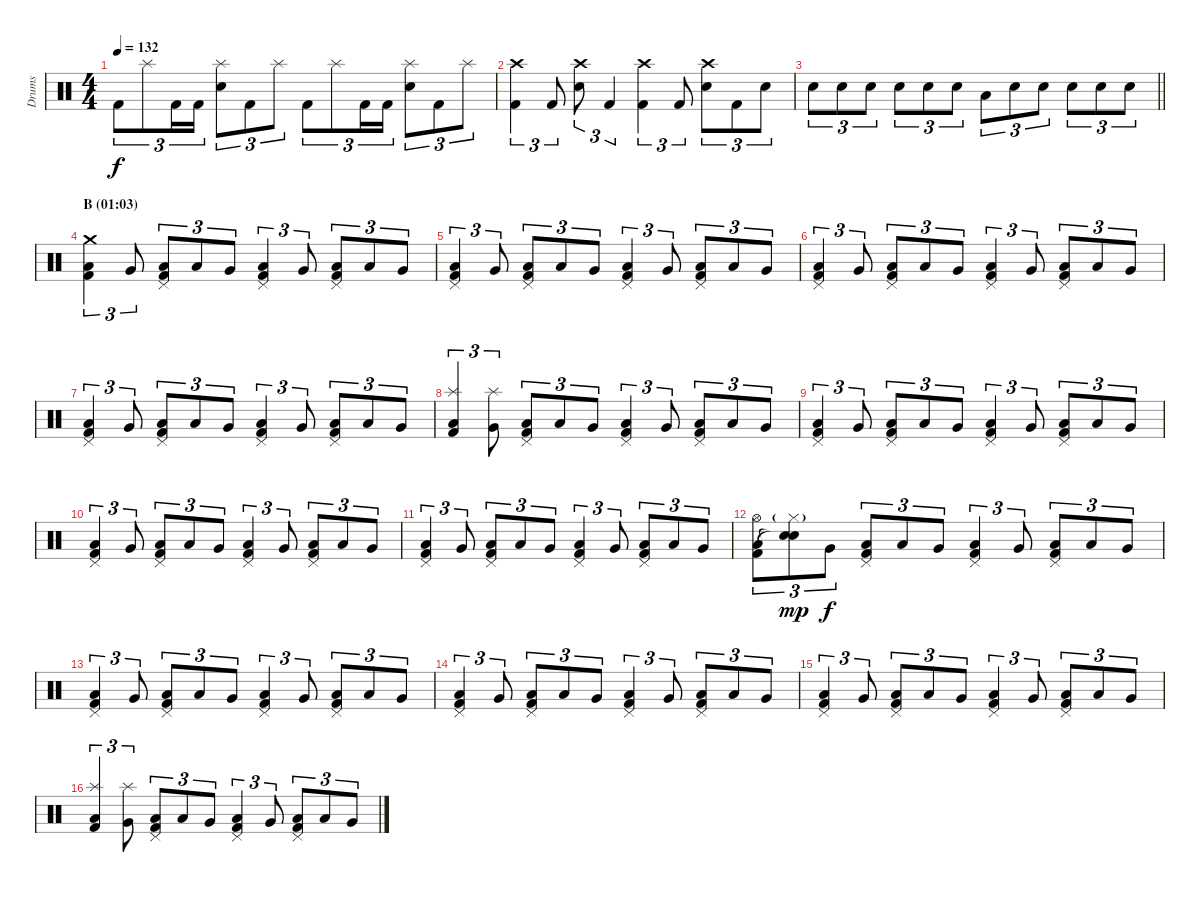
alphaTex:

\track ("Drums" "Drums") {instrument percussion}
\staff {score}
\articulation defaults
\ts (4 4)
\tempo 132
\clef neutral
\ks c "Kick (hit) 2".8{tu (3 2) dy f} "Splash (hit)".8{tu (3 2)} "Kick (hit) 2".16{tu (3 2)} "Kick (hit) 2".16{tu (3 2)}
("Splash (hit)" "Electric Snare (hit)").8{tu (3 2)} "Kick (hit) 2".8{tu (3 2)} "Splash (hit)".8{tu (3 2)} "Kick (hit) 2".8{tu (3 2)} "Splash (hit)".8{tu (3 2)} "Kick (hit) 2".16{tu (3 2)} "Kick (hit) 2".16{tu (3 2)} ("Splash (hit)" "Electric Snare (hit)").8{tu (3 2)} "Kick (hit) 2".8{tu (3 2)} "Splash (hit)".8{tu (3 2)} |
("Crash high (hit)" "Kick (hit) 2").4{tu (3 2)} "Kick (hit) 2".8{tu (3 2)} ("Crash high (hit)" "Electric Snare (hit)").8{tu (3 2)} "Kick (hit) 2".4{tu (3 2)} ("Crash high (hit)" "Kick (hit) 2").4{tu (3 2)} "Kick (hit) 2".8{tu (3 2)} ("Crash high (hit)" "Electric Snare (hit)").8{tu (3 2)} "Kick (hit) 2".8{tu (3 2)} "Electric Snare (hit)".8{tu (3 2)} |
\barLineRight lightlight "Electric Snare (hit)".8{tu (3 2)} "Electric Snare (hit)".8{tu (3 2)} "Electric Snare (hit)".8{tu (3 2)} "Electric Snare (hit)".8{tu (3 2)} "Electric Snare (hit)".8{tu (3 2)} "Electric Snare (hit)".8{tu (3 2)} "Low Tom (hit)".8{tu (3 2)} "Electric Snare (hit)".8{tu (3 2)} "Electric Snare (hit)".8{tu (3 2)} "Electric Snare (hit)".8{tu (3 2)} "Electric Snare (hit)".8{tu (3 2)} "Electric Snare (hit)".8{tu (3 2)}
|
\section ("" "B (01:03)")
("Crash medium (hit)" "Low Tom (hit)" "Kick (hit) 2").4{tu (3 2)} "Very Low Tom (hit)".8{tu (3 2)} ("Pedal Hi-Hat (hit)" "Low Tom (hit)" "Kick (hit) 2").8{tu (3 2)} "Low Tom (hit)".8{tu (3 2)} "Very Low Tom (hit)".8{tu (3 2)} ("Pedal Hi-Hat (hit)" "Low Tom (hit)" "Kick (hit) 2").4{tu (3 2)} "Very Low Tom (hit)".8{tu (3 2)} ("Pedal Hi-Hat (hit)" "Low Tom (hit)" "Kick (hit) 2").8{tu (3 2)} "Low Tom (hit)".8{tu (3 2)} "Very Low Tom (hit)".8{tu (3 2)} |
("Pedal Hi-Hat (hit)" "Low Tom (hit)" "Kick (hit) 2").4{tu (3 2)} "Very Low Tom (hit)".8{tu (3 2)} ("Pedal Hi-Hat (hit)" "Low Tom (hit)" "Kick (hit) 2").8{tu (3 2)} "Low Tom (hit)".8{tu (3 2)} "Very Low Tom (hit)".8{tu (3 2)} ("Pedal Hi-Hat (hit)" "Low Tom (hit)" "Kick (hit) 2").4{tu (3 2)} "Very Low Tom (hit)".8{tu (3 2)} ("Pedal Hi-Hat (hit)" "Low Tom (hit)" "Kick (hit) 2").8{tu (3 2)} "Low Tom (hit)".8{tu (3 2)} "Very Low Tom (hit)".8{tu (3 2)} |
("Pedal Hi-Hat (hit)" "Low Tom (hit)" "Kick (hit) 2").4{tu (3 2)} "Very Low Tom (hit)".8{tu (3 2)} ("Pedal Hi-Hat (hit)" "Low Tom (hit)" "Kick (hit) 2").8{tu (3 2)} "Low Tom (hit)".8{tu (3 2)} "Very Low Tom (hit)".8{tu (3 2)} ("Pedal Hi-Hat (hit)" "Low Tom (hit)" "Kick (hit) 2").4{tu (3 2)} "Very Low Tom (hit)".8{tu (3 2)} ("Pedal Hi-Hat (hit)" "Low Tom (hit)" "Kick (hit) 2").8{tu (3 2)} "Low Tom (hit)".8{tu (3 2)} "Very Low Tom (hit)".8{tu (3 2)} |
("Pedal Hi-Hat (hit)" "Low Tom (hit)" "Kick (hit) 2").4{tu (3 2)} "Very Low Tom (hit)".8{tu (3 2)} ("Pedal Hi-Hat (hit)" "Low Tom (hit)" "Kick (hit) 2").8{tu (3 2)} "Low Tom (hit)".8{tu (3 2)} "Very Low Tom (hit)".8{tu (3 2)} ("Pedal Hi-Hat (hit)" "Low Tom (hit)" "Kick (hit) 2").4{tu (3 2)} "Very Low Tom (hit)".8{tu (3 2)} ("Pedal Hi-Hat (hit)" "Low Tom (hit)" "Kick (hit) 2").8{tu (3 2)} "Low Tom (hit)".8{tu (3 2)} "Very Low Tom (hit)".8{tu (3 2)} |
("Splash (hit)" "Low Tom (hit)" "Kick (hit) 2").4{tu (3 2)} ("Splash (hit)" "Very Low Tom (hit)").8{tu (3 2)} ("Pedal Hi-Hat (hit)" "Low Tom (hit)" "Kick (hit) 2").8{tu (3 2)} "Low Tom (hit)".8{tu (3 2)} "Very Low Tom (hit)".8{tu (3 2)} ("Pedal Hi-Hat (hit)" "Low Tom (hit)" "Kick (hit) 2").4{tu (3 2)} "Very Low Tom (hit)".8{tu (3 2)} ("Pedal Hi-Hat (hit)" "Low Tom (hit)" "Kick (hit) 2").8{tu (3 2)} "Low Tom (hit)".8{tu (3 2)} "Very Low Tom (hit)".8{tu (3 2)} |
("Pedal Hi-Hat (hit)" "Low Tom (hit)" "Kick (hit) 2").4{tu (3 2)} "Very Low Tom (hit)".8{tu (3 2)} ("Pedal Hi-Hat (hit)" "Low Tom (hit)" "Kick (hit) 2").8{tu (3 2)} "Low Tom (hit)".8{tu (3 2)} "Very Low Tom (hit)".8{tu (3 2)} ("Pedal Hi-Hat (hit)" "Low Tom (hit)" "Kick (hit) 2").4{tu (3 2)} "Very Low Tom (hit)".8{tu (3 2)} ("Pedal Hi-Hat (hit)" "Low Tom (hit)" "Kick (hit) 2").8{tu (3 2)} "Low Tom (hit)".8{tu (3 2)} "Very Low Tom (hit)".8{tu (3 2)} |
("Pedal Hi-Hat (hit)" "Low Tom (hit)" "Kick (hit) 2").4{tu (3 2)} "Very Low Tom (hit)".8{tu (3 2)} ("Pedal Hi-Hat (hit)" "Low Tom (hit)" "Kick (hit) 2").8{tu (3 2)} "Low Tom (hit)".8{tu (3 2)} "Very Low Tom (hit)".8{tu (3 2)} ("Pedal Hi-Hat (hit)" "Low Tom (hit)" "Kick (hit) 2").4{tu (3 2)} "Very Low Tom (hit)".8{tu (3 2)} ("Pedal Hi-Hat (hit)" "Low Tom (hit)" "Kick (hit) 2").8{tu (3 2)} "Low Tom (hit)".8{tu (3 2)} "Very Low Tom (hit)".8{tu (3 2)} |
("Pedal Hi-Hat (hit)" "Low Tom (hit)" "Kick (hit) 2").4{tu (3 2)} "Very Low Tom (hit)".8{tu (3 2)} ("Pedal Hi-Hat (hit)" "Low Tom (hit)" "Kick (hit) 2").8{tu (3 2)} "Low Tom (hit)".8{tu (3 2)} "Very Low Tom (hit)".8{tu (3 2)} ("Pedal Hi-Hat (hit)" "Low Tom (hit)" "Kick (hit) 2").4{tu (3 2)} "Very Low Tom (hit)".8{tu (3 2)} ("Pedal Hi-Hat (hit)" "Low Tom (hit)" "Kick (hit) 2").8{tu (3 2)} "Low Tom (hit)".8{tu (3 2)} "Very Low Tom (hit)".8{tu (3 2)} |
("Hi-Hat (open)" "Low Tom (hit)" "Kick (hit) 2").8{tu (3 2)} ("Hi-Hat (closed)"{g} "Snare (hit)"{t} "Snare (hit)"{t}).8{tu (3 2) dy mp} "Very Low Tom (hit)".8{tu (3 2) dy f} ("Pedal Hi-Hat (hit)" "Low Tom (hit)" "Kick (hit) 2").8{tu (3 2)} "Low Tom (hit)".8{tu (3 2)} "Very Low Tom (hit)".8{tu (3 2)} ("Pedal Hi-Hat (hit)" "Low Tom (hit)" "Kick (hit) 2").4{tu (3 2)} "Very Low Tom (hit)".8{tu (3 2)} ("Pedal Hi-Hat (hit)" "Low Tom (hit)" "Kick (hit) 2").8{tu (3 2)} "Low Tom (hit)".8{tu (3 2)} "Very Low Tom (hit)".8{tu (3 2)} |
("Pedal Hi-Hat (hit)" "Low Tom (hit)" "Kick (hit) 2").4{tu (3 2)} "Very Low Tom (hit)".8{tu (3 2)} ("Pedal Hi-Hat (hit)" "Low Tom (hit)" "Kick (hit) 2").8{tu (3 2)} "Low Tom (hit)".8{tu (3 2)} "Very Low Tom (hit)".8{tu (3 2)} ("Pedal Hi-Hat (hit)" "Low Tom (hit)" "Kick (hit) 2").4{tu (3 2)} "Very Low Tom (hit)".8{tu (3 2)} ("Pedal Hi-Hat (hit)" "Low Tom (hit)" "Kick (hit) 2").8{tu (3 2)} "Low Tom (hit)".8{tu (3 2)} "Very Low Tom (hit)".8{tu (3 2)} |
("Pedal Hi-Hat (hit)" "Low Tom (hit)" "Kick (hit) 2").4{tu (3 2)} "Very Low Tom (hit)".8{tu (3 2)} ("Pedal Hi-Hat (hit)" "Low Tom (hit)" "Kick (hit) 2").8{tu (3 2)} "Low Tom (hit)".8{tu (3 2)} "Very Low Tom (hit)".8{tu (3 2)} ("Pedal Hi-Hat (hit)" "Low Tom (hit)" "Kick (hit) 2").4{tu (3 2)} "Very Low Tom (hit)".8{tu (3 2)} ("Pedal Hi-Hat (hit)" "Low Tom (hit)" "Kick (hit) 2").8{tu (3 2)} "Low Tom (hit)".8{tu (3 2)} "Very Low Tom (hit)".8{tu (3 2)} |
("Pedal Hi-Hat (hit)" "Low Tom (hit)" "Kick (hit) 2").4{tu (3 2)} "Very Low Tom (hit)".8{tu (3 2)} ("Pedal Hi-Hat (hit)" "Low Tom (hit)" "Kick (hit) 2").8{tu (3 2)} "Low Tom (hit)".8{tu (3 2)} "Very Low Tom (hit)".8{tu (3 2)} ("Pedal Hi-Hat (hit)" "Low Tom (hit)" "Kick (hit) 2").4{tu (3 2)} "Very Low Tom (hit)".8{tu (3 2)} ("Pedal Hi-Hat (hit)" "Low Tom (hit)" "Kick (hit) 2").8{tu (3 2)} "Low Tom (hit)".8{tu (3 2)} "Very Low Tom (hit)".8{tu (3 2)} |
("Splash (hit)" "Low Tom (hit)" "Kick (hit) 2").4{tu (3 2)} ("Splash (hit)" "Very Low Tom (hit)").8{tu (3 2)} ("Pedal Hi-Hat (hit)" "Low Tom (hit)" "Kick (hit) 2").8{tu (3 2)} "Low Tom (hit)".8{tu (3 2)} "Very Low Tom (hit)".8{tu (3 2)} ("Pedal Hi-Hat (hit)" "Low Tom (hit)" "Kick (hit) 2").4{tu (3 2)} "Very Low Tom (hit)".8{tu (3 2)} ("Pedal Hi-Hat (hit)" "Low Tom (hit)" "Kick (hit) 2").8{tu (3 2)} "Low Tom (hit)".8{tu (3 2)} "Very Low Tom (hit)".8{tu (3 2)}
